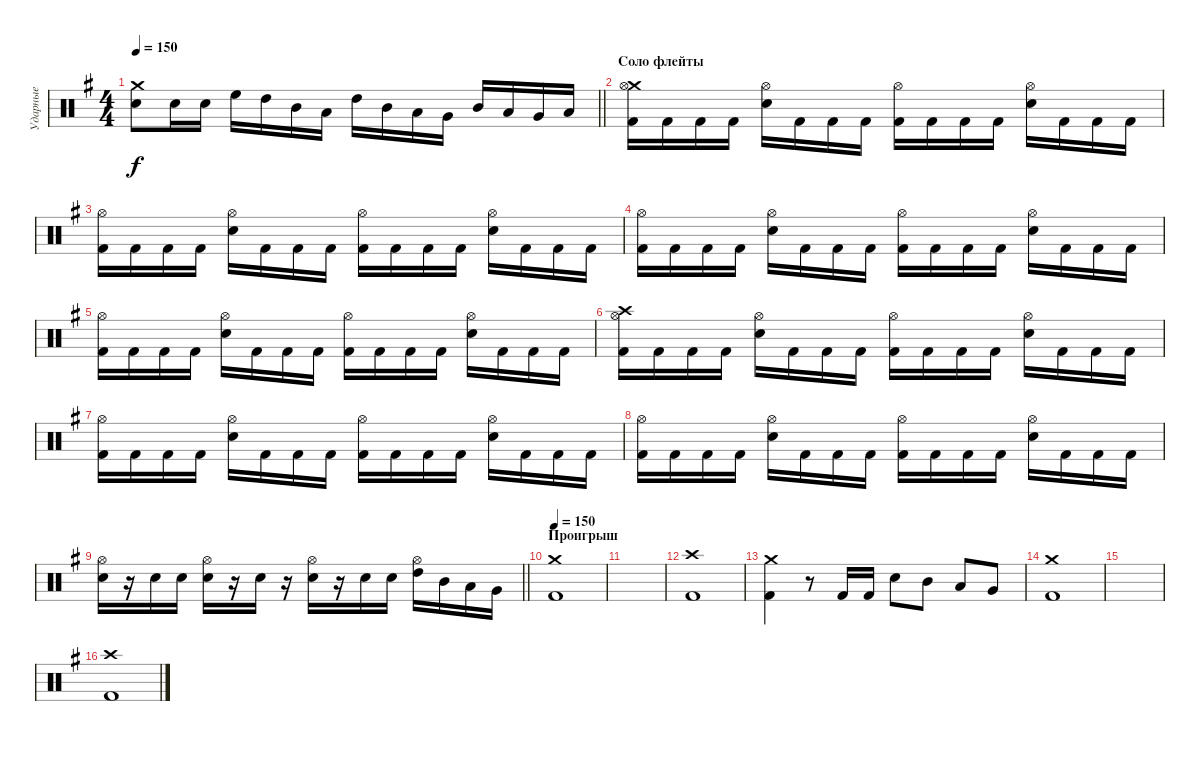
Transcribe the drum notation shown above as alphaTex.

\track ("Ударные" "Ударные") {instrument percussion}
\staff {score}
\articulation defaults
\ts (4 4)
\tempo 150
\clef neutral
\barLineRight lightlight
\ks eminor
("Crash medium (hit)" "Electric Snare (hit)").8{dy f} "Electric Snare (hit)".16 "Electric Snare (hit)".16 "High Floor Tom (hit)".16 "High Tom (hit)".16 "Mid Tom (hit)".16 "Low Tom (hit)".16 "High Tom (hit)".16 "Mid Tom (hit)".16 "Low Tom (hit)".16 "Very Low Tom (hit)".16 "Mid Tom (hit)".16 "Low Tom (hit)".16 "Very Low Tom (hit)".16 "Low Floor Tom (hit)".16 |
\section ("" "Соло флейты")
("Crash medium (hit)" "Kick (hit) 2" "Hi-Hat (open)").16 "Kick (hit) 2".16 "Kick (hit) 2".16 "Kick (hit) 2".16 ("Electric Snare (hit)" "Hi-Hat (open)").16 "Kick (hit) 2".16 "Kick (hit) 2".16 "Kick (hit) 2".16 ("Kick (hit) 2" "Hi-Hat (open)").16 "Kick (hit) 2".16 "Kick (hit) 2".16 "Kick (hit) 2".16 ("Electric Snare (hit)" "Hi-Hat (open)").16 "Kick (hit) 2".16 "Kick (hit) 2".16 "Kick (hit) 2".16 |
("Kick (hit) 2" "Hi-Hat (open)").16 "Kick (hit) 2".16 "Kick (hit) 2".16 "Kick (hit) 2".16 ("Electric Snare (hit)" "Hi-Hat (open)").16 "Kick (hit) 2".16 "Kick (hit) 2".16 "Kick (hit) 2".16 ("Kick (hit) 2" "Hi-Hat (open)").16 "Kick (hit) 2".16 "Kick (hit) 2".16 "Kick (hit) 2".16 ("Electric Snare (hit)" "Hi-Hat (open)").16 "Kick (hit) 2".16 "Kick (hit) 2".16 "Kick (hit) 2".16 |
("Kick (hit) 2" "Hi-Hat (open)").16 "Kick (hit) 2".16 "Kick (hit) 2".16 "Kick (hit) 2".16 ("Electric Snare (hit)" "Hi-Hat (open)").16 "Kick (hit) 2".16 "Kick (hit) 2".16 "Kick (hit) 2".16 ("Kick (hit) 2" "Hi-Hat (open)").16 "Kick (hit) 2".16 "Kick (hit) 2".16 "Kick (hit) 2".16 ("Electric Snare (hit)" "Hi-Hat (open)").16 "Kick (hit) 2".16 "Kick (hit) 2".16 "Kick (hit) 2".16 |
("Kick (hit) 2" "Hi-Hat (open)").16 "Kick (hit) 2".16 "Kick (hit) 2".16 "Kick (hit) 2".16 ("Electric Snare (hit)" "Hi-Hat (open)").16 "Kick (hit) 2".16 "Kick (hit) 2".16 "Kick (hit) 2".16 ("Kick (hit) 2" "Hi-Hat (open)").16 "Kick (hit) 2".16 "Kick (hit) 2".16 "Kick (hit) 2".16 ("Electric Snare (hit)" "Hi-Hat (open)").16 "Kick (hit) 2".16 "Kick (hit) 2".16 "Kick (hit) 2".16 |
("Crash high (hit)" "Kick (hit) 2" "Hi-Hat (open)").16 "Kick (hit) 2".16 "Kick (hit) 2".16 "Kick (hit) 2".16 ("Electric Snare (hit)" "Hi-Hat (open)").16 "Kick (hit) 2".16 "Kick (hit) 2".16 "Kick (hit) 2".16 ("Kick (hit) 2" "Hi-Hat (open)").16 "Kick (hit) 2".16 "Kick (hit) 2".16 "Kick (hit) 2".16 ("Electric Snare (hit)" "Hi-Hat (open)").16 "Kick (hit) 2".16 "Kick (hit) 2".16 "Kick (hit) 2".16 |
("Kick (hit) 2" "Hi-Hat (open)").16 "Kick (hit) 2".16 "Kick (hit) 2".16 "Kick (hit) 2".16 ("Electric Snare (hit)" "Hi-Hat (open)").16 "Kick (hit) 2".16 "Kick (hit) 2".16 "Kick (hit) 2".16 ("Kick (hit) 2" "Hi-Hat (open)").16 "Kick (hit) 2".16 "Kick (hit) 2".16 "Kick (hit) 2".16 ("Electric Snare (hit)" "Hi-Hat (open)").16 "Kick (hit) 2".16 "Kick (hit) 2".16 "Kick (hit) 2".16 |
("Kick (hit) 2" "Hi-Hat (open)").16 "Kick (hit) 2".16 "Kick (hit) 2".16 "Kick (hit) 2".16 ("Electric Snare (hit)" "Hi-Hat (open)").16 "Kick (hit) 2".16 "Kick (hit) 2".16 "Kick (hit) 2".16 ("Kick (hit) 2" "Hi-Hat (open)").16 "Kick (hit) 2".16 "Kick (hit) 2".16 "Kick (hit) 2".16 ("Electric Snare (hit)" "Hi-Hat (open)").16 "Kick (hit) 2".16 "Kick (hit) 2".16 "Kick (hit) 2".16 |
\barLineRight lightlight
("Electric Snare (hit)" "Hi-Hat (open)").16 r.16 "Electric Snare (hit)".16 "Electric Snare (hit)".16 ("Electric Snare (hit)" "Hi-Hat (open)").16 r.16 "Electric Snare (hit)".16 r.16 ("Electric Snare (hit)" "Hi-Hat (open)").16 r.16 "Electric Snare (hit)".16 "Electric Snare (hit)".16 ("High Tom (hit)" "Hi-Hat (open)").16 "Mid Tom (hit)".16 "Low Tom (hit)".16 "Very Low Tom (hit)".16 |
\section ("" "Проигрыш")
\tempo 150
("Crash medium (hit)" "Kick (hit) 2").1 |
|
("Crash high (hit)" "Kick (hit) 2").1 |
("Crash medium (hit)" "Kick (hit) 2").4 r.8 "Kick (hit) 2".16 "Kick (hit) 2".16 "Electric Snare (hit)".8 "Mid Tom (hit)".8 "Low Tom (hit)".8 "Very Low Tom (hit)".8 |
("Crash medium (hit)" "Kick (hit) 2").1 |
|
("Crash high (hit)" "Kick (hit) 2").1
